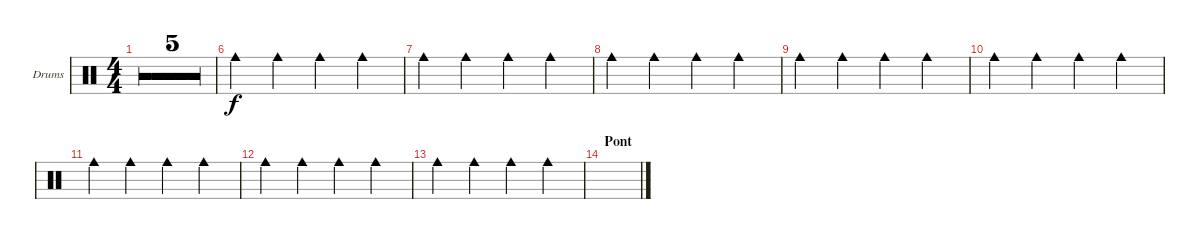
\defaultSystemsLayout 4
\bracketExtendMode groupsimilarinstruments
\firstSystemTrackNameOrientation horizontal
\otherSystemsTrackNameOrientation horizontal
\track ("Cow Bell" "Drums") {multiBarRest instrument percussion}
\staff {score}
\articulation defaults
\ts (4 4)
\tempo 120
\clef neutral
\ks c
|
|
|
|
|
"Cowbell medium (hit)".4 "Cowbell medium (hit)".4 "Cowbell medium (hit)".4 "Cowbell medium (hit)".4 |
"Cowbell medium (hit)".4 "Cowbell medium (hit)".4 "Cowbell medium (hit)".4 "Cowbell medium (hit)".4 |
"Cowbell medium (hit)".4 "Cowbell medium (hit)".4 "Cowbell medium (hit)".4 "Cowbell medium (hit)".4 |
"Cowbell medium (hit)".4 "Cowbell medium (hit)".4 "Cowbell medium (hit)".4 "Cowbell medium (hit)".4 |
"Cowbell medium (hit)".4 "Cowbell medium (hit)".4 "Cowbell medium (hit)".4 "Cowbell medium (hit)".4 |
"Cowbell medium (hit)".4 "Cowbell medium (hit)".4 "Cowbell medium (hit)".4 "Cowbell medium (hit)".4 |
"Cowbell medium (hit)".4 "Cowbell medium (hit)".4 "Cowbell medium (hit)".4 "Cowbell medium (hit)".4 |
"Cowbell medium (hit)".4 "Cowbell medium (hit)".4 "Cowbell medium (hit)".4 "Cowbell medium (hit)".4 |
\section ("" "Pont")
